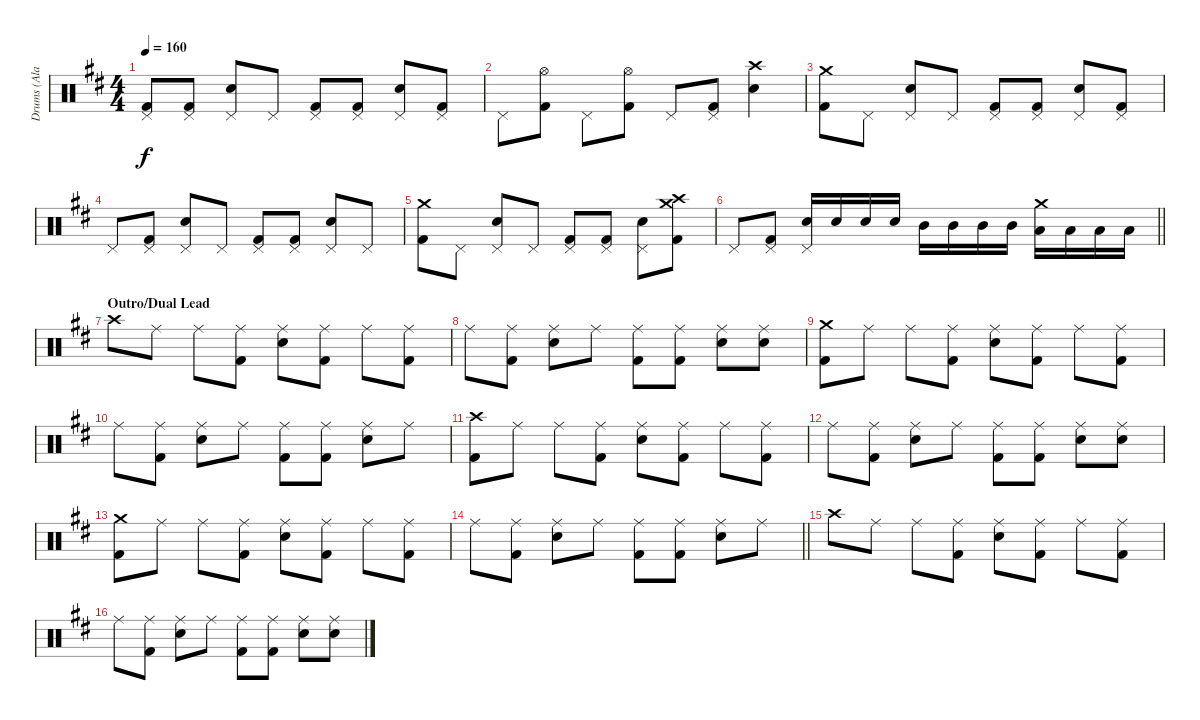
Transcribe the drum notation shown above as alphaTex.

\track ("Drums (Ala Burns)" "Drums (Ala") {instrument percussion}
\staff {score}
\articulation defaults
\ts (4 4)
\tempo 160
\clef neutral
\ks d
("Pedal Hi-Hat (hit)" "Kick (hit) 2").8{dy f} ("Pedal Hi-Hat (hit)" "Kick (hit) 2").8 ("Pedal Hi-Hat (hit)" "Snare (hit) 2").8 "Pedal Hi-Hat (hit)".8 ("Pedal Hi-Hat (hit)" "Kick (hit) 2").8 ("Pedal Hi-Hat (hit)" "Kick (hit) 2").8 ("Pedal Hi-Hat (hit)" "Snare (hit) 2").8 ("Pedal Hi-Hat (hit)" "Kick (hit) 2").8 |
"Pedal Hi-Hat (hit)".8 ("Hi-Hat (open)" "Kick (hit) 2").8 "Pedal Hi-Hat (hit)".8 ("Hi-Hat (open)" "Kick (hit) 2").8 "Pedal Hi-Hat (hit)".8 ("Pedal Hi-Hat (hit)" "Kick (hit) 2").8 ("Crash high (hit)" "Snare (hit) 2").4 |
("Crash medium (hit)" "Kick (hit) 2").8 "Pedal Hi-Hat (hit)".8 ("Pedal Hi-Hat (hit)" "Snare (hit) 2").8 "Pedal Hi-Hat (hit)".8 ("Pedal Hi-Hat (hit)" "Kick (hit) 2").8 ("Pedal Hi-Hat (hit)" "Kick (hit) 2").8 ("Pedal Hi-Hat (hit)" "Snare (hit) 2").8 ("Pedal Hi-Hat (hit)" "Kick (hit) 2").8 |
"Pedal Hi-Hat (hit)".8 ("Pedal Hi-Hat (hit)" "Kick (hit) 2").8 ("Pedal Hi-Hat (hit)" "Snare (hit) 2").8 "Pedal Hi-Hat (hit)".8 ("Pedal Hi-Hat (hit)" "Kick (hit) 2").8 ("Pedal Hi-Hat (hit)" "Kick (hit) 2").8 ("Pedal Hi-Hat (hit)" "Snare (hit) 2").8 "Pedal Hi-Hat (hit)".8 |
("Crash medium (hit)" "Kick (hit) 2").8 "Pedal Hi-Hat (hit)".8 ("Pedal Hi-Hat (hit)" "Snare (hit) 2").8 "Pedal Hi-Hat (hit)".8 ("Pedal Hi-Hat (hit)" "Kick (hit) 2").8 ("Pedal Hi-Hat (hit)" "Kick (hit) 2").8 ("Pedal Hi-Hat (hit)" "Snare (hit) 2").8 ("Crash medium (hit)" "Crash high (hit)" "Kick (hit) 2").8 |
\barLineRight lightlight "Pedal Hi-Hat (hit)".8
("Pedal Hi-Hat (hit)" "Kick (hit) 2").8 ("Snare (hit) 2" "Pedal Hi-Hat (hit)").16 "Snare (hit) 2".16 "Snare (hit) 2".16 "Snare (hit) 2".16 "Mid Tom (hit)".16 "Mid Tom (hit)".16 "Mid Tom (hit)".16 "Mid Tom (hit)".16 ("Crash medium (hit)" "Low Tom (hit)").16 "Low Tom (hit)".16 "Low Tom (hit)".16 "Low Tom (hit)".16 |
\section ("" "Outro/Dual Lead")
"Crash high (hit)".8 "Ride (middle)".8 "Ride (middle)".8 ("Ride (middle)" "Kick (hit) 2").8 ("Ride (middle)" "Snare (hit) 2").8 ("Ride (middle)" "Kick (hit) 2").8 "Ride (middle)".8 ("Ride (middle)" "Kick (hit) 2").8 |
"Ride (middle)".8 ("Ride (middle)" "Kick (hit) 2").8 ("Ride (middle)" "Snare (hit) 2").8 "Ride (middle)".8 ("Ride (middle)" "Kick (hit) 2").8 ("Ride (middle)" "Kick (hit) 2").8 ("Ride (middle)" "Snare (hit) 2").8 ("Ride (middle)" "Snare (hit) 2").8 |
("Crash medium (hit)" "Kick (hit) 2").8 "Ride (middle)".8 "Ride (middle)".8 ("Ride (middle)" "Kick (hit) 2").8 ("Ride (middle)" "Snare (hit) 2").8 ("Ride (middle)" "Kick (hit) 2").8 "Ride (middle)".8 ("Ride (middle)" "Kick (hit) 2").8 |
"Ride (middle)".8 ("Ride (middle)" "Kick (hit) 2").8 ("Ride (middle)" "Snare (hit) 2").8 "Ride (middle)".8 ("Ride (middle)" "Kick (hit) 2").8 ("Ride (middle)" "Kick (hit) 2").8 ("Ride (middle)" "Snare (hit) 2").8 "Ride (middle)".8 |
("Crash high (hit)" "Kick (hit) 2").8 "Ride (middle)".8 "Ride (middle)".8 ("Ride (middle)" "Kick (hit) 2").8 ("Ride (middle)" "Snare (hit) 2").8 ("Ride (middle)" "Kick (hit) 2").8 "Ride (middle)".8 ("Ride (middle)" "Kick (hit) 2").8 |
"Ride (middle)".8 ("Ride (middle)" "Kick (hit) 2").8 ("Ride (middle)" "Snare (hit) 2").8 "Ride (middle)".8 ("Ride (middle)" "Kick (hit) 2").8 ("Ride (middle)" "Kick (hit) 2").8 ("Ride (middle)" "Snare (hit) 2").8 ("Ride (middle)" "Snare (hit) 2").8 |
("Crash medium (hit)" "Kick (hit) 2").8 "Ride (middle)".8 "Ride (middle)".8 ("Ride (middle)" "Kick (hit) 2").8 ("Ride (middle)" "Snare (hit) 2").8 ("Ride (middle)" "Kick (hit) 2").8 "Ride (middle)".8 ("Ride (middle)" "Kick (hit) 2").8 |
\barLineRight lightlight "Ride (middle)".8
("Ride (middle)" "Kick (hit) 2").8 ("Ride (middle)" "Snare (hit) 2").8 "Ride (middle)".8 ("Ride (middle)" "Kick (hit) 2").8 ("Ride (middle)" "Kick (hit) 2").8 ("Ride (middle)" "Snare (hit) 2").8 "Ride (middle)".8 |
"Crash high (hit)".8 "Ride (middle)".8 "Ride (middle)".8 ("Ride (middle)" "Kick (hit) 2").8 ("Ride (middle)" "Snare (hit) 2").8 ("Ride (middle)" "Kick (hit) 2").8 "Ride (middle)".8 ("Ride (middle)" "Kick (hit) 2").8 |
"Ride (middle)".8 ("Ride (middle)" "Kick (hit) 2").8 ("Ride (middle)" "Snare (hit) 2").8 "Ride (middle)".8 ("Ride (middle)" "Kick (hit) 2").8 ("Ride (middle)" "Kick (hit) 2").8 ("Ride (middle)" "Snare (hit) 2").8 ("Ride (middle)" "Snare (hit) 2").8
